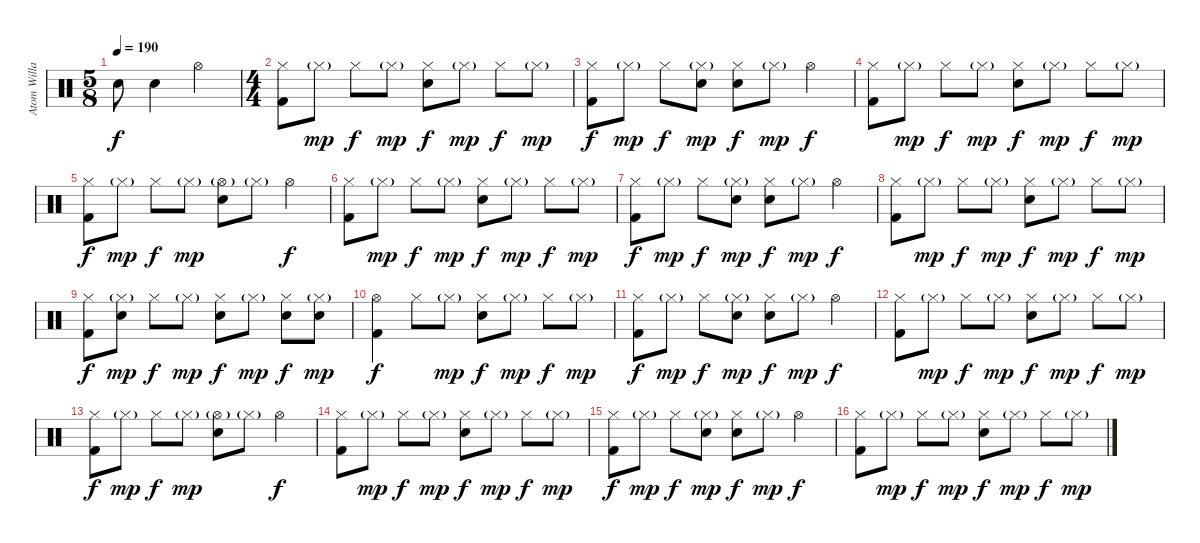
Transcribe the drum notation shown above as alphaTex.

\track ("Atom Willard" "Atom Willa") {instrument percussion}
\staff {score}
\articulation defaults
\ts (5 8)
\tempo 190
\clef neutral
\ks c "Electric Snare (hit)".8{dy f} "Electric Snare (hit)".4 "Hi-Hat (open)".4
|
\ts (4 4)
("Hi-Hat (closed)" "Kick (hit) 2").8 "Hi-Hat (closed)"{g}.8{dy mp} "Hi-Hat (closed)".8{dy f} "Hi-Hat (closed)"{g}.8{dy mp} ("Hi-Hat (closed)" "Electric Snare (hit)").8{dy f} "Hi-Hat (closed)"{g}.8{dy mp} "Hi-Hat (closed)".8{dy f} "Hi-Hat (closed)"{g}.8{dy mp} |
("Hi-Hat (closed)" "Kick (hit) 2").8{dy f} "Hi-Hat (closed)"{g}.8{dy mp} "Hi-Hat (closed)".8{dy f} ("Hi-Hat (closed)"{g} "Electric Snare (hit)").8{dy mp} ("Hi-Hat (closed)" "Electric Snare (hit)").8{dy f} "Hi-Hat (closed)"{g}.8{dy mp} "Hi-Hat (open)".4{dy f} |
("Hi-Hat (closed)" "Kick (hit) 2").8 "Hi-Hat (closed)"{g}.8{dy mp} "Hi-Hat (closed)".8{dy f} "Hi-Hat (closed)"{g}.8{dy mp} ("Hi-Hat (closed)" "Electric Snare (hit)").8{dy f} "Hi-Hat (closed)"{g}.8{dy mp} "Hi-Hat (closed)".8{dy f} "Hi-Hat (closed)"{g}.8{dy mp} |
("Hi-Hat (closed)" "Kick (hit) 2").8{dy f} "Hi-Hat (closed)"{g}.8{dy mp} "Hi-Hat (closed)".8{dy f} "Hi-Hat (closed)"{g}.8{dy mp} ("Hi-Hat (open)"{g} "Electric Snare (hit)").8 "Hi-Hat (closed)"{g}.8 "Hi-Hat (open)".4{dy f} |
("Hi-Hat (closed)" "Kick (hit) 2").8 "Hi-Hat (closed)"{g}.8{dy mp} "Hi-Hat (closed)".8{dy f} "Hi-Hat (closed)"{g}.8{dy mp} ("Hi-Hat (closed)" "Electric Snare (hit)").8{dy f} "Hi-Hat (closed)"{g}.8{dy mp} "Hi-Hat (closed)".8{dy f} "Hi-Hat (closed)"{g}.8{dy mp} |
("Hi-Hat (closed)" "Kick (hit) 2").8{dy f} "Hi-Hat (closed)"{g}.8{dy mp} "Hi-Hat (closed)".8{dy f} ("Hi-Hat (closed)"{g} "Electric Snare (hit)").8{dy mp} ("Hi-Hat (closed)" "Electric Snare (hit)").8{dy f} "Hi-Hat (closed)"{g}.8{dy mp} "Hi-Hat (open)".4{dy f} |
("Hi-Hat (closed)" "Kick (hit) 2").8 "Hi-Hat (closed)"{g}.8{dy mp} "Hi-Hat (closed)".8{dy f} "Hi-Hat (closed)"{g}.8{dy mp} ("Hi-Hat (closed)" "Electric Snare (hit)").8{dy f} "Hi-Hat (closed)"{g}.8{dy mp} "Hi-Hat (closed)".8{dy f} "Hi-Hat (closed)"{g}.8{dy mp} |
("Hi-Hat (closed)" "Kick (hit) 2").8{dy f} ("Hi-Hat (closed)"{g} "Electric Snare (hit)").8{dy mp} "Hi-Hat (closed)".8{dy f} "Hi-Hat (closed)"{g}.8{dy mp} ("Hi-Hat (closed)" "Electric Snare (hit)").8{dy f} "Hi-Hat (closed)"{g}.8{dy mp} ("Hi-Hat (closed)" "Electric Snare (hit)").8{dy f} ("Hi-Hat (closed)"{g} "Electric Snare (hit)").8{dy mp} |
("Hi-Hat (open)" "Kick (hit) 2").4{dy f} "Hi-Hat (closed)".8 "Hi-Hat (closed)"{g}.8{dy mp} ("Hi-Hat (closed)" "Electric Snare (hit)").8{dy f} "Hi-Hat (closed)"{g}.8{dy mp} "Hi-Hat (closed)".8{dy f} "Hi-Hat (closed)"{g}.8{dy mp} |
("Hi-Hat (closed)" "Kick (hit) 2").8{dy f} "Hi-Hat (closed)"{g}.8{dy mp} "Hi-Hat (closed)".8{dy f} ("Hi-Hat (closed)"{g} "Electric Snare (hit)").8{dy mp} ("Hi-Hat (closed)" "Electric Snare (hit)").8{dy f} "Hi-Hat (closed)"{g}.8{dy mp} "Hi-Hat (open)".4{dy f} |
("Hi-Hat (closed)" "Kick (hit) 2").8 "Hi-Hat (closed)"{g}.8{dy mp} "Hi-Hat (closed)".8{dy f} "Hi-Hat (closed)"{g}.8{dy mp} ("Hi-Hat (closed)" "Electric Snare (hit)").8{dy f} "Hi-Hat (closed)"{g}.8{dy mp} "Hi-Hat (closed)".8{dy f} "Hi-Hat (closed)"{g}.8{dy mp} |
("Hi-Hat (closed)" "Kick (hit) 2").8{dy f} "Hi-Hat (closed)"{g}.8{dy mp} "Hi-Hat (closed)".8{dy f} "Hi-Hat (closed)"{g}.8{dy mp} ("Hi-Hat (open)"{g} "Electric Snare (hit)").8 "Hi-Hat (closed)"{g}.8 "Hi-Hat (open)".4{dy f} |
("Hi-Hat (closed)" "Kick (hit) 2").8 "Hi-Hat (closed)"{g}.8{dy mp} "Hi-Hat (closed)".8{dy f} "Hi-Hat (closed)"{g}.8{dy mp} ("Hi-Hat (closed)" "Electric Snare (hit)").8{dy f} "Hi-Hat (closed)"{g}.8{dy mp} "Hi-Hat (closed)".8{dy f} "Hi-Hat (closed)"{g}.8{dy mp} |
("Hi-Hat (closed)" "Kick (hit) 2").8{dy f} "Hi-Hat (closed)"{g}.8{dy mp} "Hi-Hat (closed)".8{dy f} ("Hi-Hat (closed)"{g} "Electric Snare (hit)").8{dy mp} ("Hi-Hat (closed)" "Electric Snare (hit)").8{dy f} "Hi-Hat (closed)"{g}.8{dy mp} "Hi-Hat (open)".4{dy f} |
("Hi-Hat (closed)" "Kick (hit) 2").8 "Hi-Hat (closed)"{g}.8{dy mp} "Hi-Hat (closed)".8{dy f} "Hi-Hat (closed)"{g}.8{dy mp} ("Hi-Hat (closed)" "Electric Snare (hit)").8{dy f} "Hi-Hat (closed)"{g}.8{dy mp} "Hi-Hat (closed)".8{dy f} "Hi-Hat (closed)"{g}.8{dy mp}
